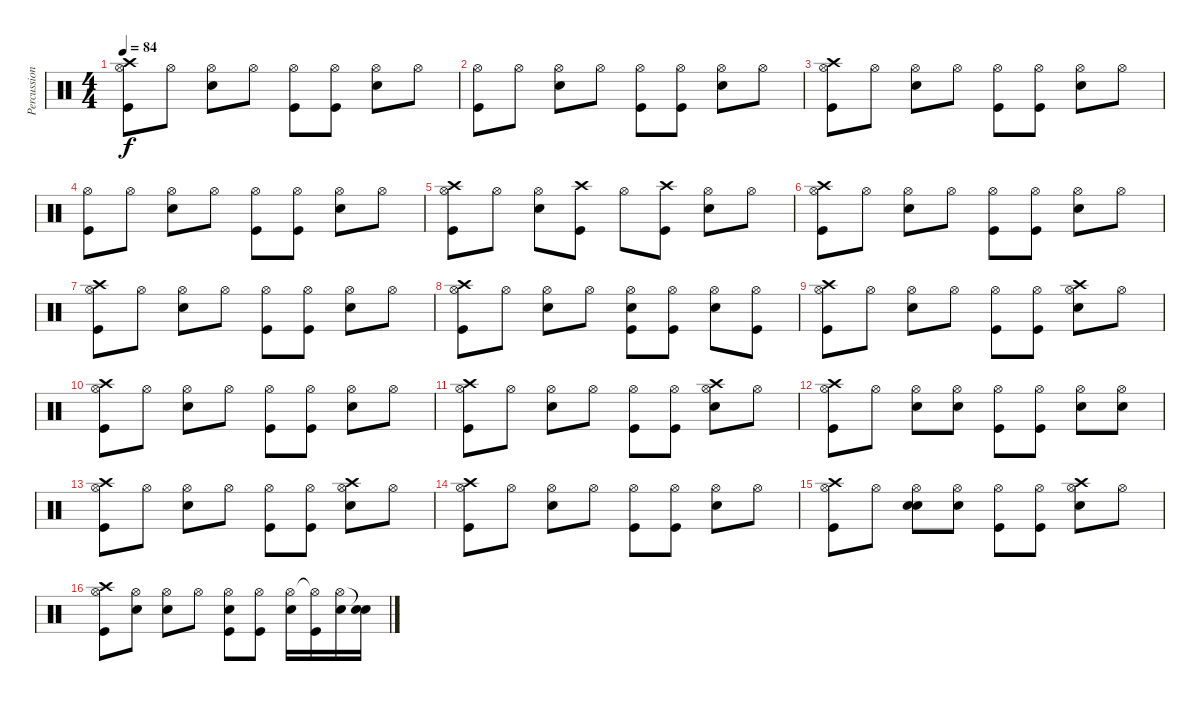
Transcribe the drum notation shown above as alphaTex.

\track ("Percussion" "Percussion") {instrument percussion}
\staff {score}
\articulation defaults
\ts (4 4)
\tempo 84
\clef neutral
\ks c
("Crash high (hit)" "Hi-Hat (open)" "Kick (hit)").8{dy f} "Hi-Hat (open)".8 ("Hi-Hat (open)" "Electric Snare (hit)").8 "Hi-Hat (open)".8 ("Hi-Hat (open)" "Kick (hit)").8 ("Hi-Hat (open)" "Kick (hit)").8 ("Hi-Hat (open)" "Electric Snare (hit)").8 "Hi-Hat (open)".8 |
("Hi-Hat (open)" "Kick (hit)").8 "Hi-Hat (open)".8 ("Hi-Hat (open)" "Electric Snare (hit)").8 "Hi-Hat (open)".8 ("Hi-Hat (open)" "Kick (hit)").8 ("Hi-Hat (open)" "Kick (hit)").8 ("Hi-Hat (open)" "Electric Snare (hit)").8 "Hi-Hat (open)".8 |
("Crash high (hit)" "Hi-Hat (open)" "Kick (hit)").8 "Hi-Hat (open)".8 ("Hi-Hat (open)" "Electric Snare (hit)").8 "Hi-Hat (open)".8 ("Hi-Hat (open)" "Kick (hit)").8 ("Hi-Hat (open)" "Kick (hit)").8 ("Hi-Hat (open)" "Electric Snare (hit)").8 "Hi-Hat (open)".8 |
("Hi-Hat (open)" "Kick (hit)").8 "Hi-Hat (open)".8 ("Hi-Hat (open)" "Electric Snare (hit)").8 "Hi-Hat (open)".8 ("Hi-Hat (open)" "Kick (hit)").8 ("Hi-Hat (open)" "Kick (hit)").8 ("Hi-Hat (open)" "Electric Snare (hit)").8 "Hi-Hat (open)".8 |
("Crash high (hit)" "Hi-Hat (open)" "Kick (hit)").8 "Hi-Hat (open)".8 ("Hi-Hat (open)" "Electric Snare (hit)").8 ("Crash high (hit)" "Kick (hit)").8 "Hi-Hat (open)".8 ("Crash high (hit)" "Kick (hit)").8 ("Hi-Hat (open)" "Electric Snare (hit)").8 "Hi-Hat (open)".8 |
("Crash high (hit)" "Hi-Hat (open)" "Kick (hit)").8 "Hi-Hat (open)".8 ("Hi-Hat (open)" "Electric Snare (hit)").8 "Hi-Hat (open)".8 ("Hi-Hat (open)" "Kick (hit)").8 ("Hi-Hat (open)" "Kick (hit)").8 ("Hi-Hat (open)" "Electric Snare (hit)").8 "Hi-Hat (open)".8 |
("Crash high (hit)" "Hi-Hat (open)" "Kick (hit)").8 "Hi-Hat (open)".8 ("Hi-Hat (open)" "Electric Snare (hit)").8 "Hi-Hat (open)".8 ("Hi-Hat (open)" "Kick (hit)").8 ("Hi-Hat (open)" "Kick (hit)").8 ("Hi-Hat (open)" "Electric Snare (hit)").8 "Hi-Hat (open)".8 |
("Crash high (hit)" "Hi-Hat (open)" "Kick (hit)").8 "Hi-Hat (open)".8 ("Hi-Hat (open)" "Electric Snare (hit)").8 "Hi-Hat (open)".8 ("Hi-Hat (open)" "Electric Snare (hit)" "Kick (hit)").8 ("Hi-Hat (open)" "Kick (hit)").8 ("Hi-Hat (open)" "Electric Snare (hit)").8 ("Hi-Hat (open)" "Kick (hit)").8 |
("Crash high (hit)" "Hi-Hat (open)" "Kick (hit)").8 "Hi-Hat (open)".8 ("Hi-Hat (open)" "Electric Snare (hit)").8 "Hi-Hat (open)".8 ("Hi-Hat (open)" "Kick (hit)").8 ("Hi-Hat (open)" "Kick (hit)").8 ("Crash high (hit)" "Hi-Hat (open)" "Electric Snare (hit)").8 "Hi-Hat (open)".8 |
("Crash high (hit)" "Hi-Hat (open)" "Kick (hit)").8 "Hi-Hat (open)".8 ("Hi-Hat (open)" "Electric Snare (hit)").8 "Hi-Hat (open)".8 ("Hi-Hat (open)" "Kick (hit)").8 ("Hi-Hat (open)" "Kick (hit)").8 ("Hi-Hat (open)" "Electric Snare (hit)").8 "Hi-Hat (open)".8 |
("Crash high (hit)" "Hi-Hat (open)" "Kick (hit)").8 "Hi-Hat (open)".8 ("Hi-Hat (open)" "Electric Snare (hit)").8 "Hi-Hat (open)".8 ("Hi-Hat (open)" "Kick (hit)").8 ("Hi-Hat (open)" "Kick (hit)").8 ("Crash high (hit)" "Hi-Hat (open)" "Electric Snare (hit)").8 "Hi-Hat (open)".8 |
("Crash high (hit)" "Hi-Hat (open)" "Kick (hit)").8 "Hi-Hat (open)".8 ("Hi-Hat (open)" "Electric Snare (hit)").8 ("Hi-Hat (open)" "Electric Snare (hit)").8 ("Hi-Hat (open)" "Kick (hit)").8 ("Hi-Hat (open)" "Kick (hit)").8 ("Hi-Hat (open)" "Electric Snare (hit)").8 ("Hi-Hat (open)" "Electric Snare (hit)").8 |
("Crash high (hit)" "Hi-Hat (open)" "Kick (hit)").8 "Hi-Hat (open)".8 ("Hi-Hat (open)" "Electric Snare (hit)").8 "Hi-Hat (open)".8 ("Hi-Hat (open)" "Kick (hit)").8 ("Hi-Hat (open)" "Kick (hit)").8 ("Crash high (hit)" "Hi-Hat (open)" "Electric Snare (hit)").8 "Hi-Hat (open)".8 |
("Crash high (hit)" "Hi-Hat (open)" "Kick (hit)").8 "Hi-Hat (open)".8 ("Hi-Hat (open)" "Electric Snare (hit)").8 "Hi-Hat (open)".8 ("Hi-Hat (open)" "Kick (hit)").8 ("Hi-Hat (open)" "Kick (hit)").8 ("Hi-Hat (open)" "Electric Snare (hit)").8 "Hi-Hat (open)".8 |
("Crash high (hit)" "Hi-Hat (open)" "Kick (hit)").8 "Hi-Hat (open)".8 ("Hi-Hat (open)" "Snare (hit)" "Electric Snare (hit)").8 ("Hi-Hat (open)" "Electric Snare (hit)").8 ("Hi-Hat (open)" "Kick (hit)").8 ("Hi-Hat (open)" "Kick (hit)").8 ("Crash high (hit)" "Hi-Hat (open)" "Electric Snare (hit)").8 "Hi-Hat (open)".8 |
("Crash high (hit)" "Hi-Hat (open)" "Kick (hit)").8 ("Hi-Hat (open)" "Electric Snare (hit)").8 ("Hi-Hat (open)" "Electric Snare (hit)").8 "Hi-Hat (open)".8 ("Hi-Hat (open)" "Electric Snare (hit)" "Kick (hit)").8 ("Hi-Hat (open)" "Kick (hit)").8 ("Hi-Hat (open)" "Electric Snare (hit)").16 ("Hi-Hat (open)"{t} "Kick (hit)").16 ("Hi-Hat (open)" "Electric Snare (hit)").16 ("Snare (hit)"{t} "Electric Snare (hit)").16
